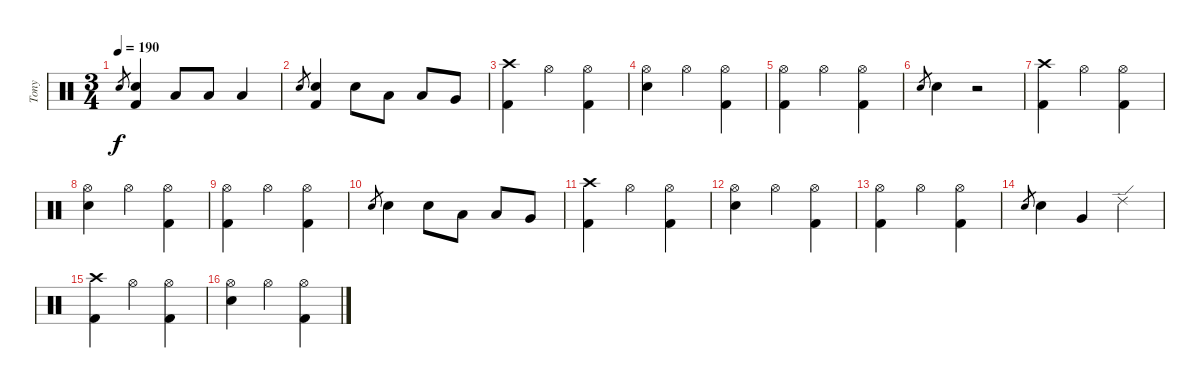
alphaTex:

\track ("Tony" "Tony") {instrument percussion}
\staff {score}
\articulation defaults
\ts (3 4)
\tempo 190
\clef neutral
\ks c "Snare (hit) 2".8{gr dy f}
("Snare (hit) 2" "Kick (hit) 2").4 "Low Tom (hit)".8 "Low Tom (hit)".8 "Low Tom (hit)".4 |
"Snare (hit) 2".8{gr} ("Snare (hit) 2" "Kick (hit) 2").4 "Snare (hit) 2".8 "Low Tom (hit)".8 "Low Tom (hit)".8 "Very Low Tom (hit)".8 |
("Crash high (hit)" "Kick (hit) 2").4 "Hi-Hat (open)".4 ("Hi-Hat (open)" "Kick (hit) 2").4 |
("Hi-Hat (open)" "Snare (hit) 2").4 "Hi-Hat (open)".4 ("Hi-Hat (open)" "Kick (hit) 2").4 |
("Hi-Hat (open)" "Kick (hit) 2").4 "Hi-Hat (open)".4 ("Hi-Hat (open)" "Kick (hit) 2").4 |
"Snare (hit) 2".8{gr} "Snare (hit) 2".4 r.2 |
("Crash high (hit)" "Kick (hit) 2").4 "Hi-Hat (open)".4 ("Hi-Hat (open)" "Kick (hit) 2").4 |
("Hi-Hat (open)" "Snare (hit) 2").4 "Hi-Hat (open)".4 ("Hi-Hat (open)" "Kick (hit) 2").4 |
("Hi-Hat (open)" "Kick (hit) 2").4 "Hi-Hat (open)".4 ("Hi-Hat (open)" "Kick (hit) 2").4 |
"Snare (hit) 2".8{gr} "Snare (hit) 2".4 "Snare (hit) 2".8 "Low Tom (hit)".8 "Low Tom (hit)".8 "Very Low Tom (hit)".8 |
("Crash high (hit)" "Kick (hit) 2").4 "Hi-Hat (open)".4 ("Hi-Hat (open)" "Kick (hit) 2").4 |
("Hi-Hat (open)" "Snare (hit) 2").4 "Hi-Hat (open)".4 ("Hi-Hat (open)" "Kick (hit) 2").4 |
("Hi-Hat (open)" "Kick (hit) 2").4 "Hi-Hat (open)".4 ("Hi-Hat (open)" "Kick (hit) 2").4 |
"Snare (hit) 2".8{gr} "Snare (hit) 2".4 "Very Low Tom (hit)".4 "Ride (edge) 2".4 |
("Crash high (hit)" "Kick (hit) 2").4 "Hi-Hat (open)".4 ("Hi-Hat (open)" "Kick (hit) 2").4 |
("Hi-Hat (open)" "Snare (hit) 2").4 "Hi-Hat (open)".4 ("Hi-Hat (open)" "Kick (hit) 2").4
